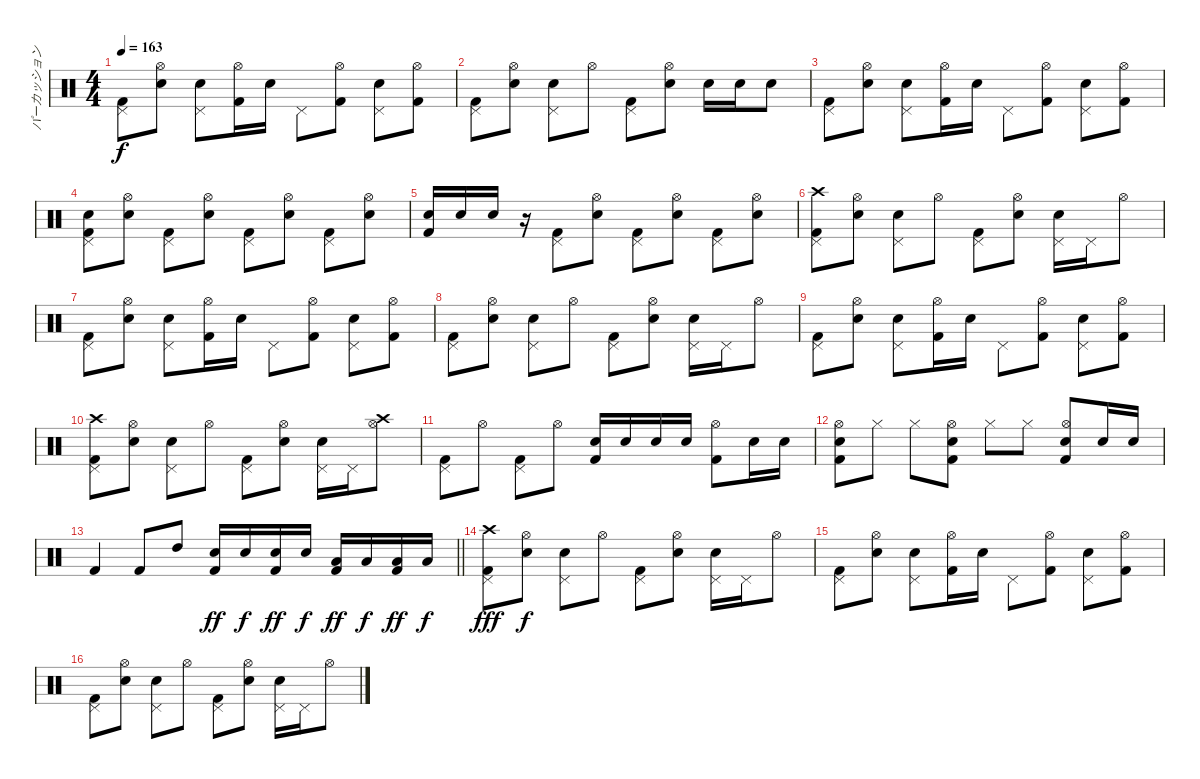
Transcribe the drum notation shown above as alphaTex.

\track ("パーカッション" "パーカッション") {instrument percussion}
\staff {score}
\articulation defaults
\ts (4 4)
\tempo 163
\clef neutral
\ks c
("Pedal Hi-Hat (hit)" "Kick (hit) 2").8{dy f} ("Hi-Hat (open)" "Snare (hit) 2").8 ("Pedal Hi-Hat (hit)" "Snare (hit) 2").8 ("Hi-Hat (open)" "Kick (hit) 2").16 "Snare (hit) 2".16 "Pedal Hi-Hat (hit)".8 ("Hi-Hat (open)" "Kick (hit) 2").8 ("Pedal Hi-Hat (hit)" "Snare (hit) 2").8 ("Hi-Hat (open)" "Kick (hit) 2").8 |
("Pedal Hi-Hat (hit)" "Kick (hit) 2").8 ("Hi-Hat (open)" "Snare (hit) 2").8 ("Pedal Hi-Hat (hit)" "Snare (hit) 2").8 "Hi-Hat (open)".8 ("Pedal Hi-Hat (hit)" "Kick (hit) 2").8 ("Hi-Hat (open)" "Snare (hit) 2").8 "Snare (hit) 2".16 "Snare (hit) 2".16 "Snare (hit) 2".8 |
("Pedal Hi-Hat (hit)" "Kick (hit) 2").8 ("Hi-Hat (open)" "Snare (hit) 2").8 ("Pedal Hi-Hat (hit)" "Snare (hit) 2").8 ("Hi-Hat (open)" "Kick (hit) 2").16 "Snare (hit) 2".16 "Pedal Hi-Hat (hit)".8 ("Hi-Hat (open)" "Kick (hit) 2").8 ("Pedal Hi-Hat (hit)" "Snare (hit) 2").8 ("Hi-Hat (open)" "Kick (hit) 2").8 |
("Pedal Hi-Hat (hit)" "Snare (hit) 2" "Kick (hit) 2").8 ("Hi-Hat (open)" "Snare (hit) 2").8 ("Pedal Hi-Hat (hit)" "Kick (hit) 2").8 ("Hi-Hat (open)" "Snare (hit) 2").8 ("Pedal Hi-Hat (hit)" "Kick (hit) 2").8 ("Hi-Hat (open)" "Snare (hit) 2").8 ("Pedal Hi-Hat (hit)" "Kick (hit) 2").8 ("Hi-Hat (open)" "Snare (hit) 2").8 |
("Snare (hit) 2" "Kick (hit) 2").16 "Snare (hit) 2".16 "Snare (hit) 2".16 r.16 ("Pedal Hi-Hat (hit)" "Kick (hit) 2").8 ("Hi-Hat (open)" "Snare (hit) 2").8 ("Pedal Hi-Hat (hit)" "Kick (hit) 2").8 ("Hi-Hat (open)" "Snare (hit) 2").8 ("Pedal Hi-Hat (hit)" "Kick (hit) 2").8 ("Hi-Hat (open)" "Snare (hit) 2").8 |
("Crash high (hit)" "Pedal Hi-Hat (hit)" "Kick (hit) 2").8 ("Hi-Hat (open)" "Snare (hit) 2").8 ("Pedal Hi-Hat (hit)" "Snare (hit) 2").8 "Hi-Hat (open)".8 ("Pedal Hi-Hat (hit)" "Kick (hit) 2").8 ("Hi-Hat (open)" "Snare (hit) 2").8 ("Pedal Hi-Hat (hit)" "Snare (hit) 2").16 "Pedal Hi-Hat (hit)".16 "Hi-Hat (open)".8 |
("Pedal Hi-Hat (hit)" "Kick (hit) 2").8 ("Hi-Hat (open)" "Snare (hit) 2").8 ("Pedal Hi-Hat (hit)" "Snare (hit) 2").8 ("Hi-Hat (open)" "Kick (hit) 2").16 "Snare (hit) 2".16 "Pedal Hi-Hat (hit)".8 ("Hi-Hat (open)" "Kick (hit) 2").8 ("Pedal Hi-Hat (hit)" "Snare (hit) 2").8 ("Hi-Hat (open)" "Kick (hit) 2").8 |
("Pedal Hi-Hat (hit)" "Kick (hit) 2").8 ("Hi-Hat (open)" "Snare (hit) 2").8 ("Pedal Hi-Hat (hit)" "Snare (hit) 2").8 "Hi-Hat (open)".8 ("Pedal Hi-Hat (hit)" "Kick (hit) 2").8 ("Hi-Hat (open)" "Snare (hit) 2").8 ("Pedal Hi-Hat (hit)" "Snare (hit) 2").16 "Pedal Hi-Hat (hit)".16 "Hi-Hat (open)".8 |
("Pedal Hi-Hat (hit)" "Kick (hit) 2").8 ("Hi-Hat (open)" "Snare (hit) 2").8 ("Pedal Hi-Hat (hit)" "Snare (hit) 2").8 ("Hi-Hat (open)" "Kick (hit) 2").16 "Snare (hit) 2".16 "Pedal Hi-Hat (hit)".8 ("Hi-Hat (open)" "Kick (hit) 2").8 ("Pedal Hi-Hat (hit)" "Snare (hit) 2").8 ("Hi-Hat (open)" "Kick (hit) 2").8 |
("Crash high (hit)" "Pedal Hi-Hat (hit)" "Kick (hit) 2").8 ("Hi-Hat (open)" "Snare (hit) 2").8 ("Pedal Hi-Hat (hit)" "Snare (hit) 2").8 "Hi-Hat (open)".8 ("Pedal Hi-Hat (hit)" "Kick (hit) 2").8 ("Hi-Hat (open)" "Snare (hit) 2").8 ("Pedal Hi-Hat (hit)" "Snare (hit) 2").16 "Pedal Hi-Hat (hit)".16 ("Crash high (hit)" "Hi-Hat (open)").8 |
("Pedal Hi-Hat (hit)" "Kick (hit) 2").8 "Hi-Hat (open)".8 ("Pedal Hi-Hat (hit)" "Kick (hit) 2").8 "Hi-Hat (open)".8 ("Snare (hit) 2" "Kick (hit) 2").16 "Snare (hit) 2".16 "Snare (hit) 2".16 "Snare (hit) 2".16 ("Hi-Hat (open)" "Kick (hit) 2").8 "Snare (hit) 2".16 "Snare (hit) 2".16 |
("Hi-Hat (open)" "Snare (hit) 2" "Kick (hit) 2").8 "Hi-Hat (closed)".8 "Hi-Hat (closed)".8 ("Hi-Hat (open)" "Snare (hit) 2" "Kick (hit) 2").8 "Hi-Hat (closed)".8 "Hi-Hat (closed)".8 ("Hi-Hat (open)" "Snare (hit) 2" "Kick (hit) 2").8 "Snare (hit) 2".16 "Snare (hit) 2".16 |
\barLineRight lightlight "Kick (hit) 2".4 "Kick (hit) 2".8 "High Tom (hit)".8
("Snare (hit) 2" "Kick (hit) 2").16{dy ff} "Snare (hit) 2".16{dy f} ("Snare (hit) 2" "Kick (hit) 2").16{dy ff} "Snare (hit) 2".16{dy f} ("Low Tom (hit)" "Kick (hit) 2").16{dy ff} "Low Tom (hit)".16{dy f} ("Low Tom (hit)" "Kick (hit) 2").16{dy ff} "Low Tom (hit)".16{dy f} |
("Crash high (hit)" "Pedal Hi-Hat (hit)" "Kick (hit) 2").8{dy fff} ("Hi-Hat (open)" "Snare (hit) 2").8{dy f} ("Pedal Hi-Hat (hit)" "Snare (hit) 2").8 "Hi-Hat (open)".8 ("Pedal Hi-Hat (hit)" "Kick (hit) 2").8 ("Hi-Hat (open)" "Snare (hit) 2").8 ("Pedal Hi-Hat (hit)" "Snare (hit) 2").16 "Pedal Hi-Hat (hit)".16 "Hi-Hat (open)".8 |
("Pedal Hi-Hat (hit)" "Kick (hit) 2").8 ("Hi-Hat (open)" "Snare (hit) 2").8 ("Pedal Hi-Hat (hit)" "Snare (hit) 2").8 ("Hi-Hat (open)" "Kick (hit) 2").16 "Snare (hit) 2".16 "Pedal Hi-Hat (hit)".8 ("Hi-Hat (open)" "Kick (hit) 2").8 ("Pedal Hi-Hat (hit)" "Snare (hit) 2").8 ("Hi-Hat (open)" "Kick (hit) 2").8 |
("Pedal Hi-Hat (hit)" "Kick (hit) 2").8 ("Hi-Hat (open)" "Snare (hit) 2").8 ("Pedal Hi-Hat (hit)" "Snare (hit) 2").8 "Hi-Hat (open)".8 ("Pedal Hi-Hat (hit)" "Kick (hit) 2").8 ("Hi-Hat (open)" "Snare (hit) 2").8 ("Pedal Hi-Hat (hit)" "Snare (hit) 2").16 "Pedal Hi-Hat (hit)".16 "Hi-Hat (open)".8
